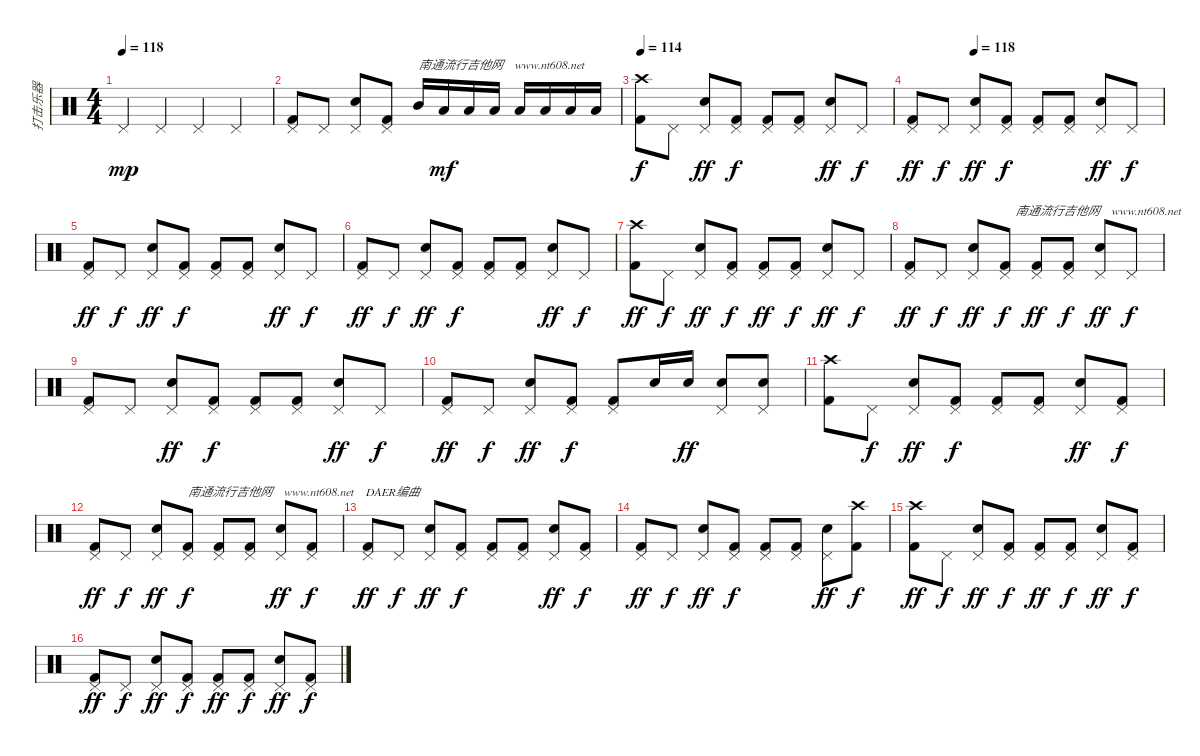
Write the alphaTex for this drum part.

\track ("打击乐器" "打击乐器") {instrument percussion}
\staff {score}
\articulation defaults
\ts (4 4)
\tempo 118
\clef neutral
\ks c "Pedal Hi-Hat (hit)".4{dy mp} "Pedal Hi-Hat (hit)".4 "Pedal Hi-Hat (hit)".4 "Pedal Hi-Hat (hit)".4
|
("Pedal Hi-Hat (hit)" "Kick (hit) 2").8 "Pedal Hi-Hat (hit)".8 ("Pedal Hi-Hat (hit)" "Snare (hit) 2").8 ("Pedal Hi-Hat (hit)" "Kick (hit) 2").8 "Mid Tom (hit)".16{txt "南通流行吉他网    www.nt608.net"} "Low Tom (hit)".16{dy mf} "Low Tom (hit)".16 "Low Tom (hit)".16 "Low Floor Tom (hit)".16 "Low Floor Tom (hit)".16 "Low Floor Tom (hit)".16 "Low Floor Tom (hit)".16 |
\tempo 115
\tempo 114
("Crash high (hit)" "Kick (hit) 2").8{dy f} "Pedal Hi-Hat (hit)".8 ("Pedal Hi-Hat (hit)" "Snare (hit) 2").8{dy ff} ("Pedal Hi-Hat (hit)" "Kick (hit) 2").8{dy f} ("Pedal Hi-Hat (hit)" "Kick (hit) 2").8 ("Pedal Hi-Hat (hit)" "Kick (hit) 2").8 ("Pedal Hi-Hat (hit)" "Snare (hit) 2").8{dy ff} "Pedal Hi-Hat (hit)".8{dy f} |
\tempo (118 0.25)
("Pedal Hi-Hat (hit)" "Kick (hit) 2").8{dy ff} "Pedal Hi-Hat (hit)".8{dy f} ("Pedal Hi-Hat (hit)" "Snare (hit) 2").8{dy ff} ("Pedal Hi-Hat (hit)" "Kick (hit) 2").8{dy f} ("Pedal Hi-Hat (hit)" "Kick (hit) 2").8 ("Pedal Hi-Hat (hit)" "Kick (hit) 2").8 ("Pedal Hi-Hat (hit)" "Snare (hit) 2").8{dy ff} "Pedal Hi-Hat (hit)".8{dy f} |
("Pedal Hi-Hat (hit)" "Kick (hit) 2").8{dy ff} "Pedal Hi-Hat (hit)".8{dy f} ("Pedal Hi-Hat (hit)" "Snare (hit) 2").8{dy ff} ("Pedal Hi-Hat (hit)" "Kick (hit) 2").8{dy f} ("Pedal Hi-Hat (hit)" "Kick (hit) 2").8 ("Pedal Hi-Hat (hit)" "Kick (hit) 2").8 ("Pedal Hi-Hat (hit)" "Snare (hit) 2").8{dy ff} "Pedal Hi-Hat (hit)".8{dy f} |
("Pedal Hi-Hat (hit)" "Kick (hit) 2").8{dy ff} "Pedal Hi-Hat (hit)".8{dy f} ("Pedal Hi-Hat (hit)" "Snare (hit) 2").8{dy ff} ("Pedal Hi-Hat (hit)" "Kick (hit) 2").8{dy f} ("Pedal Hi-Hat (hit)" "Kick (hit) 2").8 ("Pedal Hi-Hat (hit)" "Kick (hit) 2").8 ("Pedal Hi-Hat (hit)" "Snare (hit) 2").8{dy ff} "Pedal Hi-Hat (hit)".8{dy f} |
("Crash high (hit)" "Kick (hit) 2").8{dy ff} "Pedal Hi-Hat (hit)".8{dy f} ("Pedal Hi-Hat (hit)" "Snare (hit) 2").8{dy ff} ("Pedal Hi-Hat (hit)" "Kick (hit) 2").8{dy f} ("Pedal Hi-Hat (hit)" "Kick (hit) 2").8{dy ff} ("Pedal Hi-Hat (hit)" "Kick (hit) 2").8{dy f} ("Pedal Hi-Hat (hit)" "Snare (hit) 2").8{dy ff} "Pedal Hi-Hat (hit)".8{dy f} |
("Pedal Hi-Hat (hit)" "Kick (hit) 2").8{dy ff} "Pedal Hi-Hat (hit)".8{dy f} ("Pedal Hi-Hat (hit)" "Snare (hit) 2").8{txt "              南通流行吉他网    www.nt608.net" dy ff} ("Pedal Hi-Hat (hit)" "Kick (hit) 2").8{dy f} ("Pedal Hi-Hat (hit)" "Kick (hit) 2").8{dy ff} ("Pedal Hi-Hat (hit)" "Kick (hit) 2").8{dy f} ("Pedal Hi-Hat (hit)" "Snare (hit) 2").8{dy ff} "Pedal Hi-Hat (hit)".8{dy f} |
("Pedal Hi-Hat (hit)" "Kick (hit) 2").8 "Pedal Hi-Hat (hit)".8 ("Pedal Hi-Hat (hit)" "Snare (hit) 2").8{dy ff} ("Pedal Hi-Hat (hit)" "Kick (hit) 2").8{dy f} ("Pedal Hi-Hat (hit)" "Kick (hit) 2").8 ("Pedal Hi-Hat (hit)" "Kick (hit) 2").8 ("Pedal Hi-Hat (hit)" "Snare (hit) 2").8{dy ff} "Pedal Hi-Hat (hit)".8{dy f} |
("Pedal Hi-Hat (hit)" "Kick (hit) 2").8{dy ff} "Pedal Hi-Hat (hit)".8{dy f} ("Pedal Hi-Hat (hit)" "Snare (hit) 2").8{dy ff} ("Pedal Hi-Hat (hit)" "Kick (hit) 2").8{dy f} ("Pedal Hi-Hat (hit)" "Kick (hit) 2").8 "Snare (hit) 2".16 "Snare (hit) 2".16{dy ff} ("Pedal Hi-Hat (hit)" "Snare (hit) 2").8 ("Pedal Hi-Hat (hit)" "Snare (hit) 2").8 |
("Crash high (hit)" "Kick (hit) 2").8 "Pedal Hi-Hat (hit)".8{dy f} ("Pedal Hi-Hat (hit)" "Snare (hit) 2").8{dy ff} ("Pedal Hi-Hat (hit)" "Kick (hit) 2").8{dy f} ("Pedal Hi-Hat (hit)" "Kick (hit) 2").8 ("Pedal Hi-Hat (hit)" "Kick (hit) 2").8 ("Pedal Hi-Hat (hit)" "Snare (hit) 2").8{dy ff} ("Pedal Hi-Hat (hit)" "Kick (hit) 2").8{dy f} |
("Pedal Hi-Hat (hit)" "Kick (hit) 2").8{dy ff} "Pedal Hi-Hat (hit)".8{dy f} ("Pedal Hi-Hat (hit)" "Snare (hit) 2").8{dy ff} ("Pedal Hi-Hat (hit)" "Kick (hit) 2").8{txt "南通流行吉他网    www.nt608.net    DAER编曲" dy f} ("Pedal Hi-Hat (hit)" "Kick (hit) 2").8 ("Pedal Hi-Hat (hit)" "Kick (hit) 2").8 ("Pedal Hi-Hat (hit)" "Snare (hit) 2").8{dy ff} ("Pedal Hi-Hat (hit)" "Kick (hit) 2").8{dy f} |
("Pedal Hi-Hat (hit)" "Kick (hit) 2").8{dy ff} "Pedal Hi-Hat (hit)".8{dy f} ("Pedal Hi-Hat (hit)" "Snare (hit) 2").8{dy ff} ("Pedal Hi-Hat (hit)" "Kick (hit) 2").8{dy f} ("Pedal Hi-Hat (hit)" "Kick (hit) 2").8 ("Pedal Hi-Hat (hit)" "Kick (hit) 2").8 ("Pedal Hi-Hat (hit)" "Snare (hit) 2").8{dy ff} ("Pedal Hi-Hat (hit)" "Kick (hit) 2").8{dy f} |
("Pedal Hi-Hat (hit)" "Kick (hit) 2").8{dy ff} "Pedal Hi-Hat (hit)".8{dy f} ("Pedal Hi-Hat (hit)" "Snare (hit) 2").8{dy ff} ("Pedal Hi-Hat (hit)" "Kick (hit) 2").8{dy f} ("Pedal Hi-Hat (hit)" "Kick (hit) 2").8 ("Pedal Hi-Hat (hit)" "Kick (hit) 2").8 ("Pedal Hi-Hat (hit)" "Snare (hit) 2").8{dy ff} ("Crash high (hit)" "Kick (hit) 2").8{dy f} |
("Crash high (hit)" "Kick (hit) 2").8{dy ff} "Pedal Hi-Hat (hit)".8{dy f} ("Pedal Hi-Hat (hit)" "Snare (hit) 2").8{dy ff} ("Pedal Hi-Hat (hit)" "Kick (hit) 2").8{dy f} ("Pedal Hi-Hat (hit)" "Kick (hit) 2").8{dy ff} ("Pedal Hi-Hat (hit)" "Kick (hit) 2").8{dy f} ("Pedal Hi-Hat (hit)" "Snare (hit) 2").8{dy ff} ("Pedal Hi-Hat (hit)" "Kick (hit) 2").8{dy f} |
("Pedal Hi-Hat (hit)" "Kick (hit) 2").8{dy ff} "Pedal Hi-Hat (hit)".8{dy f} ("Pedal Hi-Hat (hit)" "Snare (hit) 2").8{dy ff} ("Pedal Hi-Hat (hit)" "Kick (hit) 2").8{dy f} ("Pedal Hi-Hat (hit)" "Kick (hit) 2").8{dy ff} ("Pedal Hi-Hat (hit)" "Kick (hit) 2").8{dy f} ("Pedal Hi-Hat (hit)" "Snare (hit) 2").8{dy ff} ("Pedal Hi-Hat (hit)" "Kick (hit) 2").8{dy f}
